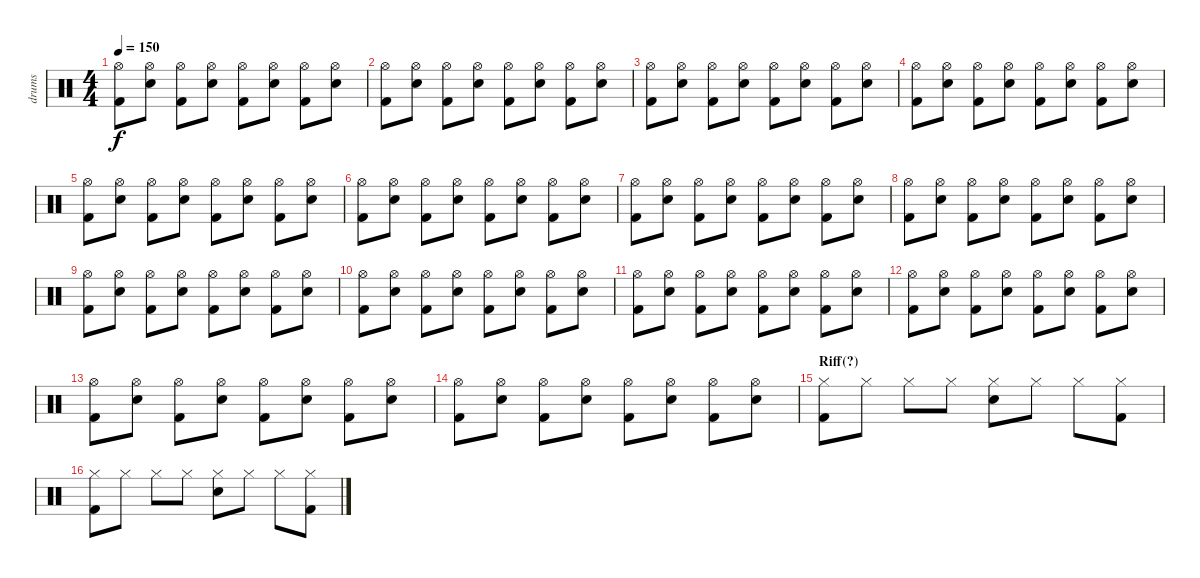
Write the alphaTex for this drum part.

\track ("drums" "drums") {instrument percussion}
\staff {score}
\articulation defaults
\ts (4 4)
\tempo 150
\clef neutral
\ks c
("Hi-Hat (open)" "Kick (hit) 2").8{dy f} ("Hi-Hat (open)" "Snare (hit) 2").8 ("Hi-Hat (open)" "Kick (hit) 2").8 ("Hi-Hat (open)" "Snare (hit) 2").8 ("Hi-Hat (open)" "Kick (hit) 2").8 ("Hi-Hat (open)" "Snare (hit) 2").8 ("Hi-Hat (open)" "Kick (hit) 2").8 ("Hi-Hat (open)" "Snare (hit) 2").8 |
("Hi-Hat (open)" "Kick (hit) 2").8 ("Hi-Hat (open)" "Snare (hit) 2").8 ("Hi-Hat (open)" "Kick (hit) 2").8 ("Hi-Hat (open)" "Snare (hit) 2").8 ("Hi-Hat (open)" "Kick (hit) 2").8 ("Hi-Hat (open)" "Snare (hit) 2").8 ("Hi-Hat (open)" "Kick (hit) 2").8 ("Hi-Hat (open)" "Snare (hit) 2").8 |
("Hi-Hat (open)" "Kick (hit) 2").8 ("Hi-Hat (open)" "Snare (hit) 2").8 ("Hi-Hat (open)" "Kick (hit) 2").8 ("Hi-Hat (open)" "Snare (hit) 2").8 ("Hi-Hat (open)" "Kick (hit) 2").8 ("Hi-Hat (open)" "Snare (hit) 2").8 ("Hi-Hat (open)" "Kick (hit) 2").8 ("Hi-Hat (open)" "Snare (hit) 2").8 |
("Hi-Hat (open)" "Kick (hit) 2").8 ("Hi-Hat (open)" "Snare (hit) 2").8 ("Hi-Hat (open)" "Kick (hit) 2").8 ("Hi-Hat (open)" "Snare (hit) 2").8 ("Hi-Hat (open)" "Kick (hit) 2").8 ("Hi-Hat (open)" "Snare (hit) 2").8 ("Hi-Hat (open)" "Kick (hit) 2").8 ("Hi-Hat (open)" "Snare (hit) 2").8 |
("Hi-Hat (open)" "Kick (hit) 2").8 ("Hi-Hat (open)" "Snare (hit) 2").8 ("Hi-Hat (open)" "Kick (hit) 2").8 ("Hi-Hat (open)" "Snare (hit) 2").8 ("Hi-Hat (open)" "Kick (hit) 2").8 ("Hi-Hat (open)" "Snare (hit) 2").8 ("Hi-Hat (open)" "Kick (hit) 2").8 ("Hi-Hat (open)" "Snare (hit) 2").8 |
("Hi-Hat (open)" "Kick (hit) 2").8 ("Hi-Hat (open)" "Snare (hit) 2").8 ("Hi-Hat (open)" "Kick (hit) 2").8 ("Hi-Hat (open)" "Snare (hit) 2").8 ("Hi-Hat (open)" "Kick (hit) 2").8 ("Hi-Hat (open)" "Snare (hit) 2").8 ("Hi-Hat (open)" "Kick (hit) 2").8 ("Hi-Hat (open)" "Snare (hit) 2").8 |
("Hi-Hat (open)" "Kick (hit) 2").8 ("Hi-Hat (open)" "Snare (hit) 2").8 ("Hi-Hat (open)" "Kick (hit) 2").8 ("Hi-Hat (open)" "Snare (hit) 2").8 ("Hi-Hat (open)" "Kick (hit) 2").8 ("Hi-Hat (open)" "Snare (hit) 2").8 ("Hi-Hat (open)" "Kick (hit) 2").8 ("Hi-Hat (open)" "Snare (hit) 2").8 |
("Hi-Hat (open)" "Kick (hit) 2").8 ("Hi-Hat (open)" "Snare (hit) 2").8 ("Hi-Hat (open)" "Kick (hit) 2").8 ("Hi-Hat (open)" "Snare (hit) 2").8 ("Hi-Hat (open)" "Kick (hit) 2").8 ("Hi-Hat (open)" "Snare (hit) 2").8 ("Hi-Hat (open)" "Kick (hit) 2").8 ("Hi-Hat (open)" "Snare (hit) 2").8 |
("Hi-Hat (open)" "Kick (hit) 2").8 ("Hi-Hat (open)" "Snare (hit) 2").8 ("Hi-Hat (open)" "Kick (hit) 2").8 ("Hi-Hat (open)" "Snare (hit) 2").8 ("Hi-Hat (open)" "Kick (hit) 2").8 ("Hi-Hat (open)" "Snare (hit) 2").8 ("Hi-Hat (open)" "Kick (hit) 2").8 ("Hi-Hat (open)" "Snare (hit) 2").8 |
("Hi-Hat (open)" "Kick (hit) 2").8 ("Hi-Hat (open)" "Snare (hit) 2").8 ("Hi-Hat (open)" "Kick (hit) 2").8 ("Hi-Hat (open)" "Snare (hit) 2").8 ("Hi-Hat (open)" "Kick (hit) 2").8 ("Hi-Hat (open)" "Snare (hit) 2").8 ("Hi-Hat (open)" "Kick (hit) 2").8 ("Hi-Hat (open)" "Snare (hit) 2").8 |
("Hi-Hat (open)" "Kick (hit) 2").8 ("Hi-Hat (open)" "Snare (hit) 2").8 ("Hi-Hat (open)" "Kick (hit) 2").8 ("Hi-Hat (open)" "Snare (hit) 2").8 ("Hi-Hat (open)" "Kick (hit) 2").8 ("Hi-Hat (open)" "Snare (hit) 2").8 ("Hi-Hat (open)" "Kick (hit) 2").8 ("Hi-Hat (open)" "Snare (hit) 2").8 |
("Hi-Hat (open)" "Kick (hit) 2").8 ("Hi-Hat (open)" "Snare (hit) 2").8 ("Hi-Hat (open)" "Kick (hit) 2").8 ("Hi-Hat (open)" "Snare (hit) 2").8 ("Hi-Hat (open)" "Kick (hit) 2").8 ("Hi-Hat (open)" "Snare (hit) 2").8 ("Hi-Hat (open)" "Kick (hit) 2").8 ("Hi-Hat (open)" "Snare (hit) 2").8 |
("Hi-Hat (open)" "Kick (hit) 2").8 ("Hi-Hat (open)" "Snare (hit) 2").8 ("Hi-Hat (open)" "Kick (hit) 2").8 ("Hi-Hat (open)" "Snare (hit) 2").8 ("Hi-Hat (open)" "Kick (hit) 2").8 ("Hi-Hat (open)" "Snare (hit) 2").8 ("Hi-Hat (open)" "Kick (hit) 2").8 ("Hi-Hat (open)" "Snare (hit) 2").8 |
("Hi-Hat (open)" "Kick (hit) 2").8 ("Hi-Hat (open)" "Snare (hit) 2").8 ("Hi-Hat (open)" "Kick (hit) 2").8 ("Hi-Hat (open)" "Snare (hit) 2").8 ("Hi-Hat (open)" "Kick (hit) 2").8 ("Hi-Hat (open)" "Snare (hit) 2").8 ("Hi-Hat (open)" "Kick (hit) 2").8 ("Hi-Hat (open)" "Snare (hit) 2").8 |
\section ("" "Riff(?)")
("Hi-Hat (closed)" "Kick (hit) 2").8 "Hi-Hat (closed)".8 "Hi-Hat (closed)".8 "Hi-Hat (closed)".8 ("Hi-Hat (closed)" "Snare (hit) 2").8 "Hi-Hat (closed)".8 "Hi-Hat (closed)".8 ("Hi-Hat (closed)" "Kick (hit) 2").8 |
("Hi-Hat (closed)" "Kick (hit) 2").8 "Hi-Hat (closed)".8 "Hi-Hat (closed)".8 "Hi-Hat (closed)".8 ("Hi-Hat (closed)" "Snare (hit) 2").8 "Hi-Hat (closed)".8 "Hi-Hat (closed)".8 ("Hi-Hat (closed)" "Kick (hit) 2").8
